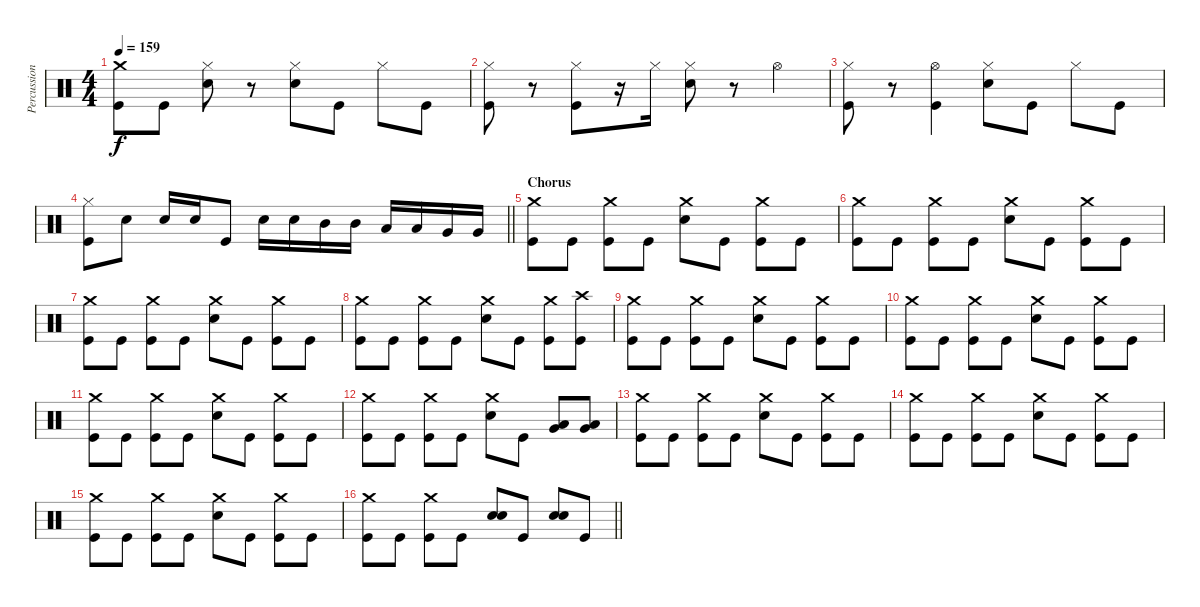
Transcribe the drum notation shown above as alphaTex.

\track ("Percussion" "Percussion") {instrument percussion}
\staff {score}
\articulation defaults
\ts (4 4)
\tempo 159
\clef neutral
\ks c
("Crash medium (hit)" "Kick (hit)").8{dy f} "Kick (hit)".8 ("Hi-Hat (closed)" "Snare (hit) 2").8 r.8 ("Hi-Hat (closed)" "Snare (hit) 2").8 "Kick (hit)".8 "Hi-Hat (closed)".8 "Kick (hit)".8 |
("Hi-Hat (closed)" "Kick (hit)").8 r.8 ("Hi-Hat (closed)" "Kick (hit)").8 r.16 "Hi-Hat (closed)".16 ("Hi-Hat (closed)" "Snare (hit) 2").8 r.8 "Hi-Hat (open)".4 |
("Hi-Hat (closed)" "Kick (hit)").8 r.8 ("Hi-Hat (open)" "Kick (hit)").4 ("Hi-Hat (closed)" "Snare (hit) 2").8 "Kick (hit)".8 "Hi-Hat (closed)".8 "Kick (hit)".8 |
\barLineRight lightlight
("Hi-Hat (closed)" "Kick (hit)").8 "Snare (hit) 2".8 "Snare (hit) 2".16 "Snare (hit) 2".16 "Kick (hit)".8 "Snare (hit) 2".16 "Snare (hit) 2".16 "Mid Tom (hit)".16 "Mid Tom (hit)".16 "Low Tom (hit)".16 "Low Tom (hit)".16 "Very Low Tom (hit)".16 "Very Low Tom (hit)".16 |
\section ("" "Chorus")
("Crash medium (hit)" "Kick (hit)").8 "Kick (hit)".8 ("Crash medium (hit)" "Kick (hit)").8 "Kick (hit)".8 ("Crash medium (hit)" "Snare (hit) 2").8 "Kick (hit)".8 ("Crash medium (hit)" "Kick (hit)").8 "Kick (hit)".8 |
("Crash medium (hit)" "Kick (hit)").8 "Kick (hit)".8 ("Crash medium (hit)" "Kick (hit)").8 "Kick (hit)".8 ("Crash medium (hit)" "Snare (hit) 2").8 "Kick (hit)".8 ("Crash medium (hit)" "Kick (hit)").8 "Kick (hit)".8 |
("Crash medium (hit)" "Kick (hit)").8 "Kick (hit)".8 ("Crash medium (hit)" "Kick (hit)").8 "Kick (hit)".8 ("Crash medium (hit)" "Snare (hit) 2").8 "Kick (hit)".8 ("Crash medium (hit)" "Kick (hit)").8 "Kick (hit)".8 |
("Crash medium (hit)" "Kick (hit)").8 "Kick (hit)".8 ("Crash medium (hit)" "Kick (hit)").8 "Kick (hit)".8 ("Crash medium (hit)" "Snare (hit) 2").8 "Kick (hit)".8 ("Crash medium (hit)" "Kick (hit)").8 ("Crash high (hit)" "Kick (hit)").8 |
("Crash medium (hit)" "Kick (hit)").8 "Kick (hit)".8 ("Crash medium (hit)" "Kick (hit)").8 "Kick (hit)".8 ("Crash medium (hit)" "Snare (hit) 2").8 "Kick (hit)".8 ("Crash medium (hit)" "Kick (hit)").8 "Kick (hit)".8 |
("Crash medium (hit)" "Kick (hit)").8 "Kick (hit)".8 ("Crash medium (hit)" "Kick (hit)").8 "Kick (hit)".8 ("Crash medium (hit)" "Snare (hit) 2").8 "Kick (hit)".8 ("Crash medium (hit)" "Kick (hit)").8 "Kick (hit)".8 |
("Crash medium (hit)" "Kick (hit)").8 "Kick (hit)".8 ("Crash medium (hit)" "Kick (hit)").8 "Kick (hit)".8 ("Crash medium (hit)" "Snare (hit) 2").8 "Kick (hit)".8 ("Crash medium (hit)" "Kick (hit)").8 "Kick (hit)".8 |
("Crash medium (hit)" "Kick (hit)").8 "Kick (hit)".8 ("Crash medium (hit)" "Kick (hit)").8 "Kick (hit)".8 ("Crash medium (hit)" "Snare (hit) 2").8 "Kick (hit)".8 ("Low Tom (hit)" "Very Low Tom (hit)").8 ("Low Tom (hit)" "Very Low Tom (hit)").8 |
("Crash medium (hit)" "Kick (hit)").8 "Kick (hit)".8 ("Crash medium (hit)" "Kick (hit)").8 "Kick (hit)".8 ("Crash medium (hit)" "Snare (hit) 2").8 "Kick (hit)".8 ("Crash medium (hit)" "Kick (hit)").8 "Kick (hit)".8 |
("Crash medium (hit)" "Kick (hit)").8 "Kick (hit)".8 ("Crash medium (hit)" "Kick (hit)").8 "Kick (hit)".8 ("Crash medium (hit)" "Snare (hit) 2").8 "Kick (hit)".8 ("Crash medium (hit)" "Kick (hit)").8 "Kick (hit)".8 |
("Crash medium (hit)" "Kick (hit)").8 "Kick (hit)".8 ("Crash medium (hit)" "Kick (hit)").8 "Kick (hit)".8 ("Crash medium (hit)" "Snare (hit) 2").8 "Kick (hit)".8 ("Crash medium (hit)" "Kick (hit)").8 "Kick (hit)".8 |
\barLineRight lightlight
("Crash medium (hit)" "Kick (hit)").8 "Kick (hit)".8 ("Crash medium (hit)" "Kick (hit)").8 "Kick (hit)".8 ("Snare (hit) 2" "Snare (hit) 2").8 "Kick (hit)".8 ("Snare (hit) 2" "Snare (hit) 2").8 "Kick (hit)".8
